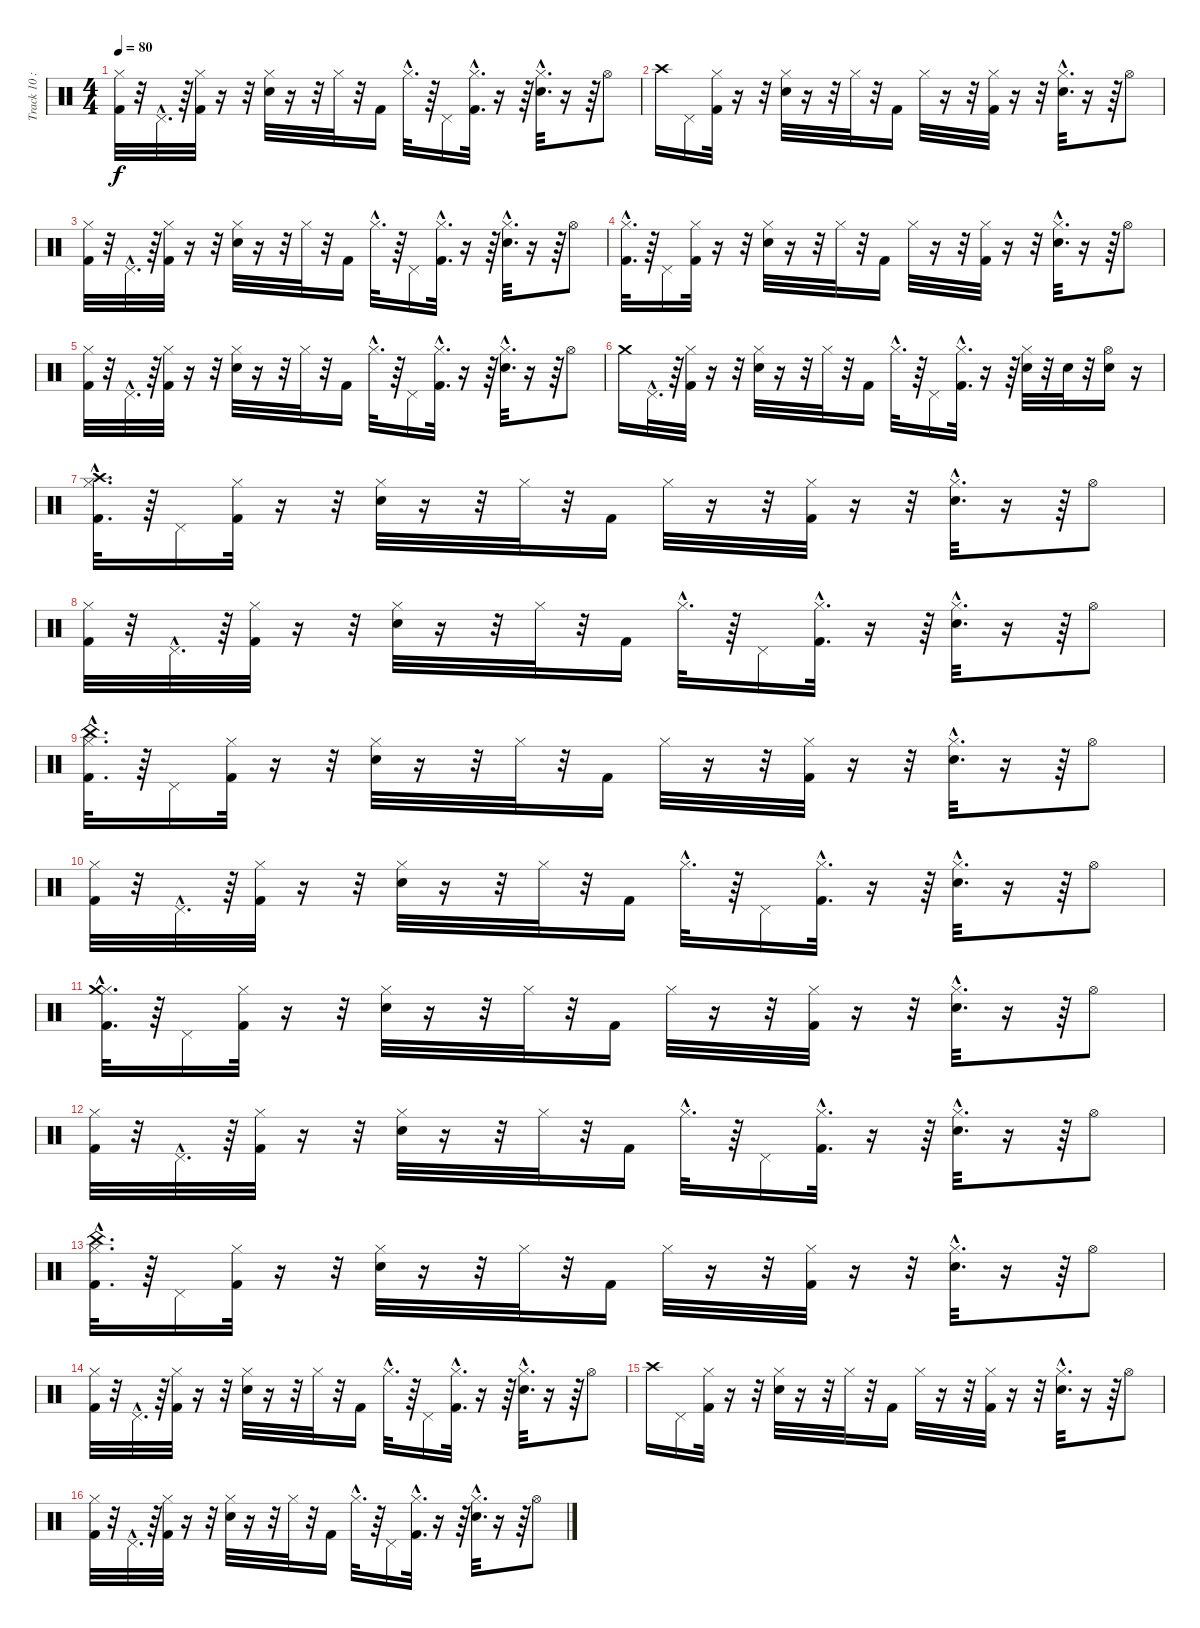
\track ("Track 10 : unspecified" "Track 10 :") {instrument percussion}
\staff {score}
\articulation defaults
\ts (4 4)
\tempo 80
\clef neutral
\ks c
("Kick (hit) 2" "Hi-Hat (closed)").32{dy f} r.32 "Pedal Hi-Hat (hit)"{hac}.32{d} r.64 ("Hi-Hat (closed)" "Kick (hit) 2").32 r.16 r.32 ("Hi-Hat (closed)" "Snare (hit) 2").32 r.16 r.32 "Hi-Hat (closed)".32 r.32 "Kick (hit) 2".16 "Hi-Hat (closed)"{hac}.32{d} r.64 "Pedal Hi-Hat (hit)".16 ("Kick (hit) 2"{hac} "Hi-Hat (closed)"{hac}).32{d} r.16 r.64 ("Hi-Hat (closed)"{hac} "Snare (hit) 2"{hac}).32{d} r.16 r.64 "Hi-Hat (open)".8 |
"Crash high (hit)".16 "Pedal Hi-Hat (hit)".16 ("Kick (hit) 2" "Hi-Hat (closed)").32 r.16 r.32 ("Snare (hit) 2" "Hi-Hat (closed)").32 r.16 r.32 "Hi-Hat (closed)".32 r.32 "Kick (hit) 2".16 "Hi-Hat (closed)".32 r.16 r.32 ("Hi-Hat (closed)" "Kick (hit) 2").32 r.16 r.32 ("Snare (hit) 2"{hac} "Hi-Hat (closed)"{hac}).32{d} r.16 r.64 "Hi-Hat (open)".8 |
("Hi-Hat (closed)" "Kick (hit) 2").32 r.32 "Pedal Hi-Hat (hit)"{hac}.32{d} r.64 ("Kick (hit) 2" "Hi-Hat (closed)").32 r.16 r.32 ("Hi-Hat (closed)" "Snare (hit) 2").32 r.16 r.32 "Hi-Hat (closed)".32 r.32 "Kick (hit) 2".16 "Hi-Hat (closed)"{hac}.32{d} r.64 "Pedal Hi-Hat (hit)".16 ("Hi-Hat (closed)"{hac} "Kick (hit) 2"{hac}).32{d} r.16 r.64 ("Hi-Hat (closed)"{hac} "Snare (hit) 2"{hac}).32{d} r.16 r.64 "Hi-Hat (open)".8 |
("Kick (hit) 2"{hac} "Hi-Hat (closed)"{hac}).32{d} r.64 "Pedal Hi-Hat (hit)".16 ("Kick (hit) 2" "Hi-Hat (closed)").32 r.16 r.32 ("Hi-Hat (closed)" "Snare (hit) 2").32 r.16 r.32 "Hi-Hat (closed)".32 r.32 "Kick (hit) 2".16 "Hi-Hat (closed)".32 r.16 r.32 ("Kick (hit) 2" "Hi-Hat (closed)").32 r.16 r.32 ("Snare (hit) 2"{hac} "Hi-Hat (closed)"{hac}).32{d} r.16 r.64 "Hi-Hat (open)".8 |
("Kick (hit) 2" "Hi-Hat (closed)").32 r.32 "Pedal Hi-Hat (hit)"{hac}.32{d} r.64 ("Hi-Hat (closed)" "Kick (hit) 2").32 r.16 r.32 ("Snare (hit) 2" "Hi-Hat (closed)").32 r.16 r.32 "Hi-Hat (closed)".32 r.32 "Kick (hit) 2".16 "Hi-Hat (closed)"{hac}.32{d} r.64 "Pedal Hi-Hat (hit)".16 ("Hi-Hat (closed)"{hac} "Kick (hit) 2"{hac}).32{d} r.16 r.64 ("Snare (hit) 2"{hac} "Hi-Hat (closed)"{hac}).32{d} r.16 r.64 "Hi-Hat (open)".8 |
"Crash medium (hit)".16 "Pedal Hi-Hat (hit)"{hac}.32{d} r.64 ("Kick (hit) 2" "Hi-Hat (closed)").32 r.16 r.32 ("Snare (hit) 2" "Hi-Hat (closed)").32 r.16 r.32 "Hi-Hat (closed)".32 r.32 "Kick (hit) 2".16 "Hi-Hat (closed)"{hac}.32{d} r.64 "Pedal Hi-Hat (hit)".16 ("Kick (hit) 2"{hac} "Hi-Hat (closed)"{hac}).32{d} r.16 r.64 ("Hi-Hat (closed)" "Snare (hit) 2").32 r.32 "Snare (hit) 2".32 r.32 ("Snare (hit) 2" "Hi-Hat (open)").16 r.16 |
("Hi-Hat (closed)"{hac} "Crash high (hit)"{hac} "Kick (hit) 2"{hac}).32{d} r.64 "Pedal Hi-Hat (hit)".16 ("Kick (hit) 2" "Hi-Hat (closed)").32 r.16 r.32 ("Hi-Hat (closed)" "Snare (hit) 2").32 r.16 r.32 "Hi-Hat (closed)".32 r.32 "Kick (hit) 2".16 "Hi-Hat (closed)".32 r.16 r.32 ("Hi-Hat (closed)" "Kick (hit) 2").32 r.16 r.32 ("Hi-Hat (closed)"{hac} "Snare (hit) 2"{hac}).32{d} r.16 r.64 "Hi-Hat (open)".8 |
("Kick (hit) 2" "Hi-Hat (closed)").32 r.32 "Pedal Hi-Hat (hit)"{hac}.32{d} r.64 ("Kick (hit) 2" "Hi-Hat (closed)").32 r.16 r.32 ("Snare (hit) 2" "Hi-Hat (closed)").32 r.16 r.32 "Hi-Hat (closed)".32 r.32 "Kick (hit) 2".16 "Hi-Hat (closed)"{hac}.32{d} r.64 "Pedal Hi-Hat (hit)".16 ("Kick (hit) 2"{hac} "Hi-Hat (closed)"{hac}).32{d} r.16 r.64 ("Hi-Hat (closed)"{hac} "Snare (hit) 2"{hac}).32{d} r.16 r.64 "Hi-Hat (open)".8 |
("Kick (hit) 2"{hac} "China (hit)"{hac} "Hi-Hat (closed)"{hac}).32{d} r.64 "Pedal Hi-Hat (hit)".16 ("Hi-Hat (closed)" "Kick (hit) 2").32 r.16 r.32 ("Snare (hit) 2" "Hi-Hat (closed)").32 r.16 r.32 "Hi-Hat (closed)".32 r.32 "Kick (hit) 2".16 "Hi-Hat (closed)".32 r.16 r.32 ("Kick (hit) 2" "Hi-Hat (closed)").32 r.16 r.32 ("Hi-Hat (closed)"{hac} "Snare (hit) 2"{hac}).32{d} r.16 r.64 "Hi-Hat (open)".8 |
("Kick (hit) 2" "Hi-Hat (closed)").32 r.32 "Pedal Hi-Hat (hit)"{hac}.32{d} r.64 ("Kick (hit) 2" "Hi-Hat (closed)").32 r.16 r.32 ("Hi-Hat (closed)" "Snare (hit) 2").32 r.16 r.32 "Hi-Hat (closed)".32 r.32 "Kick (hit) 2".16 "Hi-Hat (closed)"{hac}.32{d} r.64 "Pedal Hi-Hat (hit)".16 ("Hi-Hat (closed)"{hac} "Kick (hit) 2"{hac}).32{d} r.16 r.64 ("Snare (hit) 2"{hac} "Hi-Hat (closed)"{hac}).32{d} r.16 r.64 "Hi-Hat (open)".8 |
("Kick (hit) 2"{hac} "Hi-Hat (closed)"{hac} "Crash medium (hit)"{hac}).32{d} r.64 "Pedal Hi-Hat (hit)".16 ("Hi-Hat (closed)" "Kick (hit) 2").32 r.16 r.32 ("Snare (hit) 2" "Hi-Hat (closed)").32 r.16 r.32 "Hi-Hat (closed)".32 r.32 "Kick (hit) 2".16 "Hi-Hat (closed)".32 r.16 r.32 ("Hi-Hat (closed)" "Kick (hit) 2").32 r.16 r.32 ("Snare (hit) 2"{hac} "Hi-Hat (closed)"{hac}).32{d} r.16 r.64 "Hi-Hat (open)".8 |
("Hi-Hat (closed)" "Kick (hit) 2").32 r.32 "Pedal Hi-Hat (hit)"{hac}.32{d} r.64 ("Kick (hit) 2" "Hi-Hat (closed)").32 r.16 r.32 ("Hi-Hat (closed)" "Snare (hit) 2").32 r.16 r.32 "Hi-Hat (closed)".32 r.32 "Kick (hit) 2".16 "Hi-Hat (closed)"{hac}.32{d} r.64 "Pedal Hi-Hat (hit)".16 ("Hi-Hat (closed)"{hac} "Kick (hit) 2"{hac}).32{d} r.16 r.64 ("Snare (hit) 2"{hac} "Hi-Hat (closed)"{hac}).32{d} r.16 r.64 "Hi-Hat (open)".8 |
("Kick (hit) 2"{hac} "Hi-Hat (closed)"{hac} "China (hit)"{hac}).32{d} r.64 "Pedal Hi-Hat (hit)".16 ("Hi-Hat (closed)" "Kick (hit) 2").32 r.16 r.32 ("Snare (hit) 2" "Hi-Hat (closed)").32 r.16 r.32 "Hi-Hat (closed)".32 r.32 "Kick (hit) 2".16 "Hi-Hat (closed)".32 r.16 r.32 ("Hi-Hat (closed)" "Kick (hit) 2").32 r.16 r.32 ("Hi-Hat (closed)"{hac} "Snare (hit) 2"{hac}).32{d} r.16 r.64 "Hi-Hat (open)".8 |
("Hi-Hat (closed)" "Kick (hit) 2").32 r.32 "Pedal Hi-Hat (hit)"{hac}.32{d} r.64 ("Hi-Hat (closed)" "Kick (hit) 2").32 r.16 r.32 ("Snare (hit) 2" "Hi-Hat (closed)").32 r.16 r.32 "Hi-Hat (closed)".32 r.32 "Kick (hit) 2".16 "Hi-Hat (closed)"{hac}.32{d} r.64 "Pedal Hi-Hat (hit)".16 ("Hi-Hat (closed)"{hac} "Kick (hit) 2"{hac}).32{d} r.16 r.64 ("Snare (hit) 2"{hac} "Hi-Hat (closed)"{hac}).32{d} r.16 r.64 "Hi-Hat (open)".8 |
"Crash high (hit)".16 "Pedal Hi-Hat (hit)".16 ("Hi-Hat (closed)" "Kick (hit) 2").32 r.16 r.32 ("Hi-Hat (closed)" "Snare (hit) 2").32 r.16 r.32 "Hi-Hat (closed)".32 r.32 "Kick (hit) 2".16 "Hi-Hat (closed)".32 r.16 r.32 ("Hi-Hat (closed)" "Kick (hit) 2").32 r.16 r.32 ("Hi-Hat (closed)"{hac} "Snare (hit) 2"{hac}).32{d} r.16 r.64 "Hi-Hat (open)".8 |
("Hi-Hat (closed)" "Kick (hit) 2").32 r.32 "Pedal Hi-Hat (hit)"{hac}.32{d} r.64 ("Kick (hit) 2" "Hi-Hat (closed)").32 r.16 r.32 ("Snare (hit) 2" "Hi-Hat (closed)").32 r.16 r.32 "Hi-Hat (closed)".32 r.32 "Kick (hit) 2".16 "Hi-Hat (closed)"{hac}.32{d} r.64 "Pedal Hi-Hat (hit)".16 ("Hi-Hat (closed)"{hac} "Kick (hit) 2"{hac}).32{d} r.16 r.64 ("Snare (hit) 2"{hac} "Hi-Hat (closed)"{hac}).32{d} r.16 r.64 "Hi-Hat (open)".8
